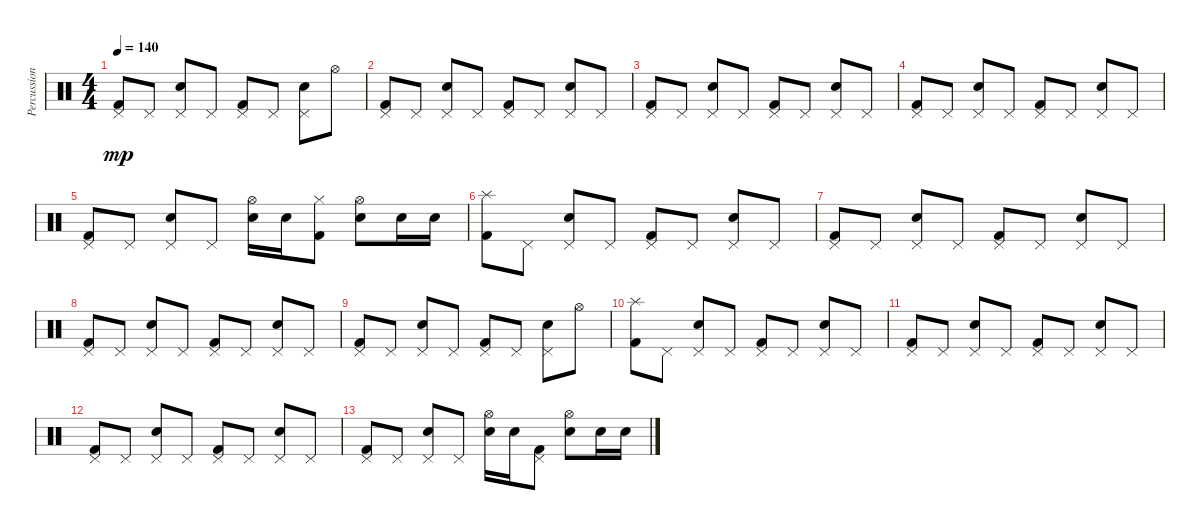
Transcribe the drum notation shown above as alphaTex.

\track ("Percussions" "Percussion") {instrument percussion}
\staff {score}
\articulation defaults
\ts (4 4)
\tempo 140
\clef neutral
\ks c
("Pedal Hi-Hat (hit)" "Kick (hit) 2").8{dy mp} "Pedal Hi-Hat (hit)".8 ("Pedal Hi-Hat (hit)" "Electric Snare (hit)").8 "Pedal Hi-Hat (hit)".8 ("Pedal Hi-Hat (hit)" "Kick (hit) 2").8 "Pedal Hi-Hat (hit)".8 ("Pedal Hi-Hat (hit)" "Electric Snare (hit)").8 "Hi-Hat (open)".8 |
("Pedal Hi-Hat (hit)" "Kick (hit) 2").8 "Pedal Hi-Hat (hit)".8 ("Pedal Hi-Hat (hit)" "Electric Snare (hit)").8 "Pedal Hi-Hat (hit)".8 ("Pedal Hi-Hat (hit)" "Kick (hit) 2").8 "Pedal Hi-Hat (hit)".8 ("Pedal Hi-Hat (hit)" "Electric Snare (hit)").8 "Pedal Hi-Hat (hit)".8 |
("Pedal Hi-Hat (hit)" "Kick (hit) 2").8 "Pedal Hi-Hat (hit)".8 ("Pedal Hi-Hat (hit)" "Electric Snare (hit)").8 "Pedal Hi-Hat (hit)".8 ("Pedal Hi-Hat (hit)" "Kick (hit) 2").8 "Pedal Hi-Hat (hit)".8 ("Pedal Hi-Hat (hit)" "Electric Snare (hit)").8 "Pedal Hi-Hat (hit)".8 |
("Pedal Hi-Hat (hit)" "Kick (hit) 2").8 "Pedal Hi-Hat (hit)".8 ("Pedal Hi-Hat (hit)" "Electric Snare (hit)").8 "Pedal Hi-Hat (hit)".8 ("Pedal Hi-Hat (hit)" "Kick (hit) 2").8 "Pedal Hi-Hat (hit)".8 ("Pedal Hi-Hat (hit)" "Electric Snare (hit)").8 "Pedal Hi-Hat (hit)".8 |
("Pedal Hi-Hat (hit)" "Kick (hit) 2").8 "Pedal Hi-Hat (hit)".8 ("Pedal Hi-Hat (hit)" "Electric Snare (hit)").8 "Pedal Hi-Hat (hit)".8 ("Hi-Hat (open)" "Electric Snare (hit)").16 "Electric Snare (hit)".16 ("Hi-Hat (closed)" "Kick (hit) 2").8 ("Hi-Hat (open)" "Electric Snare (hit)").8 "Electric Snare (hit)".16 "Electric Snare (hit)".16 |
("Splash (hit)" "Kick (hit) 2").8 "Pedal Hi-Hat (hit)".8 ("Pedal Hi-Hat (hit)" "Electric Snare (hit)").8 "Pedal Hi-Hat (hit)".8 ("Pedal Hi-Hat (hit)" "Kick (hit) 2").8 "Pedal Hi-Hat (hit)".8 ("Pedal Hi-Hat (hit)" "Electric Snare (hit)").8 "Pedal Hi-Hat (hit)".8 |
("Pedal Hi-Hat (hit)" "Kick (hit) 2").8 "Pedal Hi-Hat (hit)".8 ("Pedal Hi-Hat (hit)" "Electric Snare (hit)").8 "Pedal Hi-Hat (hit)".8 ("Pedal Hi-Hat (hit)" "Kick (hit) 2").8 "Pedal Hi-Hat (hit)".8 ("Pedal Hi-Hat (hit)" "Electric Snare (hit)").8 "Pedal Hi-Hat (hit)".8 |
("Pedal Hi-Hat (hit)" "Kick (hit) 2").8 "Pedal Hi-Hat (hit)".8 ("Pedal Hi-Hat (hit)" "Electric Snare (hit)").8 "Pedal Hi-Hat (hit)".8 ("Pedal Hi-Hat (hit)" "Kick (hit) 2").8 "Pedal Hi-Hat (hit)".8 ("Pedal Hi-Hat (hit)" "Electric Snare (hit)").8 "Pedal Hi-Hat (hit)".8 |
("Pedal Hi-Hat (hit)" "Kick (hit) 2").8 "Pedal Hi-Hat (hit)".8 ("Pedal Hi-Hat (hit)" "Electric Snare (hit)").8 "Pedal Hi-Hat (hit)".8 ("Pedal Hi-Hat (hit)" "Kick (hit) 2").8 "Pedal Hi-Hat (hit)".8 ("Pedal Hi-Hat (hit)" "Electric Snare (hit)").8 "Hi-Hat (open)".8 |
("Splash (hit)" "Kick (hit) 2").8 "Pedal Hi-Hat (hit)".8 ("Pedal Hi-Hat (hit)" "Electric Snare (hit)").8 "Pedal Hi-Hat (hit)".8 ("Pedal Hi-Hat (hit)" "Kick (hit) 2").8 "Pedal Hi-Hat (hit)".8 ("Pedal Hi-Hat (hit)" "Electric Snare (hit)").8 "Pedal Hi-Hat (hit)".8 |
("Pedal Hi-Hat (hit)" "Kick (hit) 2").8 "Pedal Hi-Hat (hit)".8 ("Pedal Hi-Hat (hit)" "Electric Snare (hit)").8 "Pedal Hi-Hat (hit)".8 ("Pedal Hi-Hat (hit)" "Kick (hit) 2").8 "Pedal Hi-Hat (hit)".8 ("Pedal Hi-Hat (hit)" "Electric Snare (hit)").8 "Pedal Hi-Hat (hit)".8 |
("Pedal Hi-Hat (hit)" "Kick (hit) 2").8 "Pedal Hi-Hat (hit)".8 ("Pedal Hi-Hat (hit)" "Electric Snare (hit)").8 "Pedal Hi-Hat (hit)".8 ("Pedal Hi-Hat (hit)" "Kick (hit) 2").8 "Pedal Hi-Hat (hit)".8 ("Pedal Hi-Hat (hit)" "Electric Snare (hit)").8 "Pedal Hi-Hat (hit)".8 |
("Pedal Hi-Hat (hit)" "Kick (hit) 2").8 "Pedal Hi-Hat (hit)".8 ("Pedal Hi-Hat (hit)" "Electric Snare (hit)").8 "Pedal Hi-Hat (hit)".8 ("Hi-Hat (open)" "Electric Snare (hit)").16 "Electric Snare (hit)".16 ("Pedal Hi-Hat (hit)" "Kick (hit) 2").8 ("Hi-Hat (open)" "Electric Snare (hit)").8 "Electric Snare (hit)".16 "Electric Snare (hit)".16
